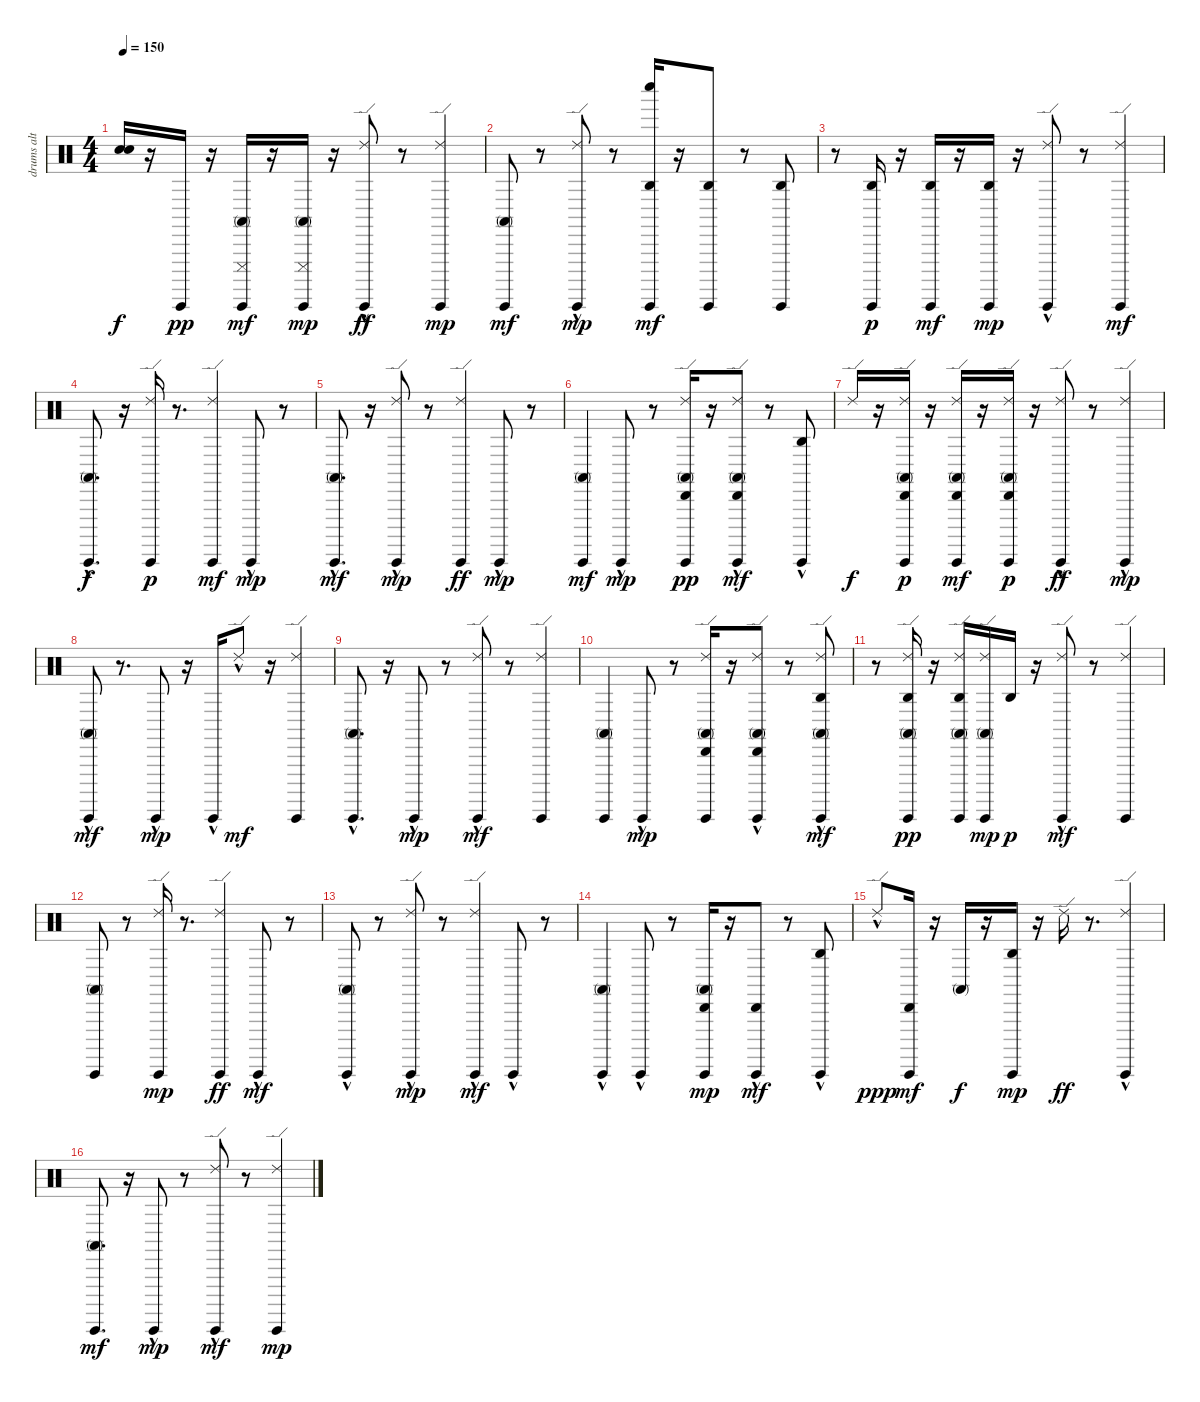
\track ("drums alt" "drums alt") {instrument percussion}
\staff {score}
\articulation defaults
\ts (4 4)
\tempo 150
\clef neutral
\ks c
("Snare (hit)"{t} "Snare (hit)"{t}).16{dy f} r.16 "Guiro (hit)".16{dy pp} r.16 ("Guiro (hit)" "Cuica (mute)" "Conga high (mute)").16{dy mf} r.16 ("Cuica (mute)" "Guiro (hit)" "Conga high (mute)").16{dy mp} r.16 ("Guiro (hit)" "Ride (edge) 2"{hac}).8{dy ff} r.8 ("Guiro (hit)" "Ride (edge) 2").4{dy mp} |
("Guiro (hit)" "Conga high (mute)").8{dy mf} r.8 ("Ride (edge) 2"{hac} "Guiro (hit)"{hac}).8{dy mp} r.8 ("Guiro (hit)" "Agogo high (hit)" "Whistle low (hit)").16{dy mf} r.16 ("Agogo high (hit)" "Guiro (hit)").8 r.8 ("Guiro (hit)" "Agogo high (hit)").8 |
r.8 ("Guiro (hit)" "Agogo high (hit)").16{dy p} r.16 ("Guiro (hit)" "Agogo high (hit)").16{dy mf} r.16 ("Guiro (hit)" "Agogo high (hit)").16{dy mp} r.16 ("Ride (edge) 2"{hac} "Guiro (hit)"{hac}).8 r.8 ("Guiro (hit)" "Ride (edge) 2").4{dy mf} |
("Conga high (mute)" "Guiro (hit)"{hac}).8{d dy f} r.16 ("Ride (edge) 2" "Guiro (hit)").16{dy p} r.8{d} ("Guiro (hit)" "Ride (edge) 2").4{dy mf} "Guiro (hit)"{hac}.8{dy mp} r.8 |
("Conga high (mute)" "Guiro (hit)"{hac}).8{d dy mf} r.16 ("Guiro (hit)"{hac} "Ride (edge) 2").8{dy mp} r.8 ("Guiro (hit)" "Ride (edge) 2").4{dy ff} "Guiro (hit)"{hac}.8{dy mp} r.8 |
("Conga high (mute)" "Guiro (hit)").4{dy mf} "Guiro (hit)"{hac}.8{dy mp} r.8 ("Ride (edge) 2" "Guiro (hit)" "Conga high (mute)" "Cabasa (hit)").16{dy pp} r.16 ("Ride (edge) 2"{hac} "Guiro (hit)"{hac} "Conga high (mute)" "Cabasa (hit)").8{dy mf} r.8 ("Guiro (hit)"{hac} "Agogo high (hit)"{hac}).8 |
"Ride (edge) 2".16{dy f} r.16 ("Guiro (hit)" "Conga high (mute)" "Ride (edge) 2" "Cabasa (hit)").16{dy p} r.16 ("Guiro (hit)" "Cabasa (hit)" "Ride (edge) 2" "Conga high (mute)").16{dy mf} r.16 ("Ride (edge) 2" "Conga high (mute)" "Guiro (hit)" "Cabasa (hit)").16{dy p} r.16 ("Guiro (hit)"{hac} "Ride (edge) 2"{hac}).8{dy ff} r.8 ("Guiro (hit)"{hac} "Ride (edge) 2").4{dy mp} |
("Conga high (mute)"{hac} "Guiro (hit)").8{dy mf} r.8{d} "Guiro (hit)"{hac}.8{dy mp} r.16 "Guiro (hit)"{hac}.16 "Ride (edge) 2"{hac}.8{dy mf} r.16 ("Guiro (hit)" "Ride (edge) 2").4 |
("Guiro (hit)" "Conga high (mute)"{hac}).8{d} r.16 "Guiro (hit)"{hac}.8{dy mp} r.8 ("Guiro (hit)"{hac} "Ride (edge) 2"{hac}).8{dy mf} r.8 ("Guiro (hit)" "Ride (edge) 2").4 |
("Guiro (hit)" "Conga high (mute)").4 "Guiro (hit)"{hac}.8{dy mp} r.8 ("Guiro (hit)" "Conga high (mute)" "Ride (edge) 2" "Cabasa (hit)").16 r.16 ("Ride (edge) 2" "Conga high (mute)" "Guiro (hit)"{hac} "Cabasa (hit)").8 r.8 ("Guiro (hit)" "Agogo high (hit)"{hac} "Ride (edge) 2"{hac} "Conga high (mute)").8{dy mf} |
r.8 ("Guiro (hit)" "Ride (edge) 2" "Agogo high (hit)" "Conga high (mute)").16{dy pp} r.16 ("Guiro (hit)" "Ride (edge) 2" "Conga high (mute)" "Agogo high (hit)").16 ("Ride (edge) 2" "Conga high (mute)" "Guiro (hit)").16{dy mp} "Agogo high (hit)".16{dy p} r.16 ("Ride (edge) 2"{hac} "Guiro (hit)"{hac}).8{dy mf} r.8 ("Guiro (hit)" "Ride (edge) 2").4 |
("Conga high (mute)" "Guiro (hit)").8 r.8 ("Ride (edge) 2" "Guiro (hit)").16{dy mp} r.8{d} ("Guiro (hit)" "Ride (edge) 2").4{dy ff} "Guiro (hit)"{hac}.8{dy mf} r.8 |
("Guiro (hit)"{hac} "Conga high (mute)").8 r.8 ("Guiro (hit)"{hac} "Ride (edge) 2").8{dy mp} r.8 ("Ride (edge) 2" "Guiro (hit)"{hac}).4{dy mf} "Guiro (hit)"{hac}.8 r.8 |
("Guiro (hit)"{hac} "Conga high (mute)").4 "Guiro (hit)"{hac}.8 r.8 ("Guiro (hit)" "Conga high (mute)" "Cabasa (hit)").16{dy mp} r.16 ("Guiro (hit)"{hac} "Cabasa (hit)").8{dy mf} r.8 ("Guiro (hit)"{hac} "Agogo high (hit)").8 |
"Ride (edge) 2"{hac}.8{dy ppp} ("Guiro (hit)" "Cabasa (hit)").16{dy mf} r.16 "Conga high (mute)".16{dy f} r.16 ("Agogo high (hit)" "Guiro (hit)").16{dy mp} r.16 "Ride (edge) 2".16{dy ff} r.8{d} ("Guiro (hit)"{hac} "Ride (edge) 2").4 |
("Conga high (mute)" "Guiro (hit)").8{d dy mf} r.16 "Guiro (hit)"{hac}.8{dy mp} r.8 ("Guiro (hit)"{hac} "Ride (edge) 2").8{dy mf} r.8 ("Guiro (hit)" "Ride (edge) 2").4{dy mp}
